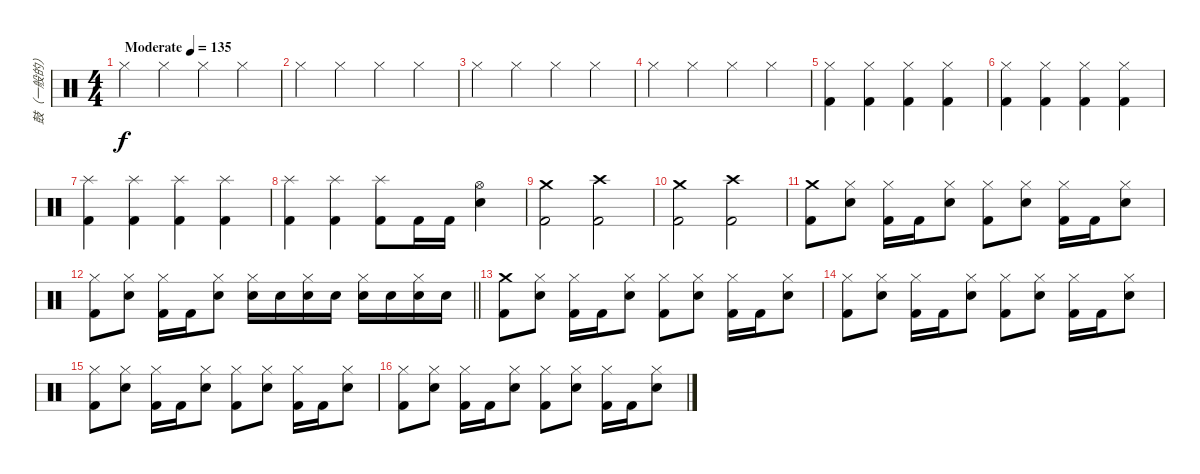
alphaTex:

\track ("鼓（一般的）" "鼓（一般的）") {instrument percussion}
\staff {score}
\articulation defaults
\ts (4 4)
\tempo (135 "Moderate")
\clef neutral
\ks c "Hi-Hat (closed)".4{dy f} "Hi-Hat (closed)".4 "Hi-Hat (closed)".4 "Hi-Hat (closed)".4
|
"Hi-Hat (closed)".4 "Hi-Hat (closed)".4 "Hi-Hat (closed)".4 "Hi-Hat (closed)".4 |
"Hi-Hat (closed)".4 "Hi-Hat (closed)".4 "Hi-Hat (closed)".4 "Hi-Hat (closed)".4 |
"Hi-Hat (closed)".4 "Hi-Hat (closed)".4 "Hi-Hat (closed)".4 "Hi-Hat (closed)".4 |
("Hi-Hat (closed)" "Kick (hit) 2").4 ("Hi-Hat (closed)" "Kick (hit) 2").4 ("Hi-Hat (closed)" "Kick (hit) 2").4 ("Hi-Hat (closed)" "Kick (hit) 2").4 |
("Hi-Hat (closed)" "Kick (hit) 2").4 ("Hi-Hat (closed)" "Kick (hit) 2").4 ("Hi-Hat (closed)" "Kick (hit) 2").4 ("Hi-Hat (closed)" "Kick (hit) 2").4 |
("Splash (hit)" "Kick (hit) 2").4 ("Splash (hit)" "Kick (hit) 2").4 ("Splash (hit)" "Kick (hit) 2").4 ("Splash (hit)" "Kick (hit) 2").4 |
("Splash (hit)" "Kick (hit) 2").4 ("Splash (hit)" "Kick (hit) 2").4 ("Splash (hit)" "Kick (hit) 2").8 "Kick (hit) 2".16 "Kick (hit) 2".16 ("Hi-Hat (open)" "Snare (hit) 2").4 |
("Crash medium (hit)" "Kick (hit) 2").2 ("Crash high (hit)" "Kick (hit) 2").2 |
("Crash medium (hit)" "Kick (hit) 2").2 ("Crash high (hit)" "Kick (hit) 2").2 |
("Crash medium (hit)" "Kick (hit) 2").8 ("Hi-Hat (closed)" "Snare (hit) 2").8 ("Hi-Hat (closed)" "Kick (hit) 2").16 "Kick (hit) 2".16 ("Hi-Hat (closed)" "Snare (hit) 2").8 ("Hi-Hat (closed)" "Kick (hit) 2").8 ("Hi-Hat (closed)" "Snare (hit) 2").8 ("Hi-Hat (closed)" "Kick (hit) 2").16 "Kick (hit) 2".16 ("Hi-Hat (closed)" "Snare (hit) 2").8 |
\barLineRight lightlight
("Hi-Hat (closed)" "Kick (hit) 2").8 ("Hi-Hat (closed)" "Snare (hit) 2").8 ("Hi-Hat (closed)" "Kick (hit) 2").16 "Kick (hit) 2".16 ("Hi-Hat (closed)" "Snare (hit) 2").8 ("Hi-Hat (closed)" "Snare (hit) 2").16 "Snare (hit) 2".16 ("Hi-Hat (closed)" "Snare (hit) 2").16 "Snare (hit) 2".16 ("Hi-Hat (closed)" "Snare (hit) 2").16 "Snare (hit) 2".16 ("Hi-Hat (closed)" "Snare (hit) 2").16 "Snare (hit) 2".16 |
("Crash medium (hit)" "Kick (hit) 2").8 ("Hi-Hat (closed)" "Snare (hit) 2").8 ("Hi-Hat (closed)" "Kick (hit) 2").16 "Kick (hit) 2".16 ("Hi-Hat (closed)" "Snare (hit) 2").8 ("Hi-Hat (closed)" "Kick (hit) 2").8 ("Hi-Hat (closed)" "Snare (hit) 2").8 ("Hi-Hat (closed)" "Kick (hit) 2").16 "Kick (hit) 2".16 ("Hi-Hat (closed)" "Snare (hit) 2").8 |
("Hi-Hat (closed)" "Kick (hit) 2").8 ("Hi-Hat (closed)" "Snare (hit) 2").8 ("Hi-Hat (closed)" "Kick (hit) 2").16 "Kick (hit) 2".16 ("Hi-Hat (closed)" "Snare (hit) 2").8 ("Hi-Hat (closed)" "Kick (hit) 2").8 ("Hi-Hat (closed)" "Snare (hit) 2").8 ("Hi-Hat (closed)" "Kick (hit) 2").16 "Kick (hit) 2".16 ("Hi-Hat (closed)" "Snare (hit) 2").8 |
("Hi-Hat (closed)" "Kick (hit) 2").8 ("Hi-Hat (closed)" "Snare (hit) 2").8 ("Hi-Hat (closed)" "Kick (hit) 2").16 "Kick (hit) 2".16 ("Hi-Hat (closed)" "Snare (hit) 2").8 ("Hi-Hat (closed)" "Kick (hit) 2").8 ("Hi-Hat (closed)" "Snare (hit) 2").8 ("Hi-Hat (closed)" "Kick (hit) 2").16 "Kick (hit) 2".16 ("Hi-Hat (closed)" "Snare (hit) 2").8 |
("Hi-Hat (closed)" "Kick (hit) 2").8 ("Hi-Hat (closed)" "Snare (hit) 2").8 ("Hi-Hat (closed)" "Kick (hit) 2").16 "Kick (hit) 2".16 ("Hi-Hat (closed)" "Snare (hit) 2").8 ("Hi-Hat (closed)" "Kick (hit) 2").8 ("Hi-Hat (closed)" "Snare (hit) 2").8 ("Hi-Hat (closed)" "Kick (hit) 2").16 "Kick (hit) 2".16 ("Hi-Hat (closed)" "Snare (hit) 2").8
